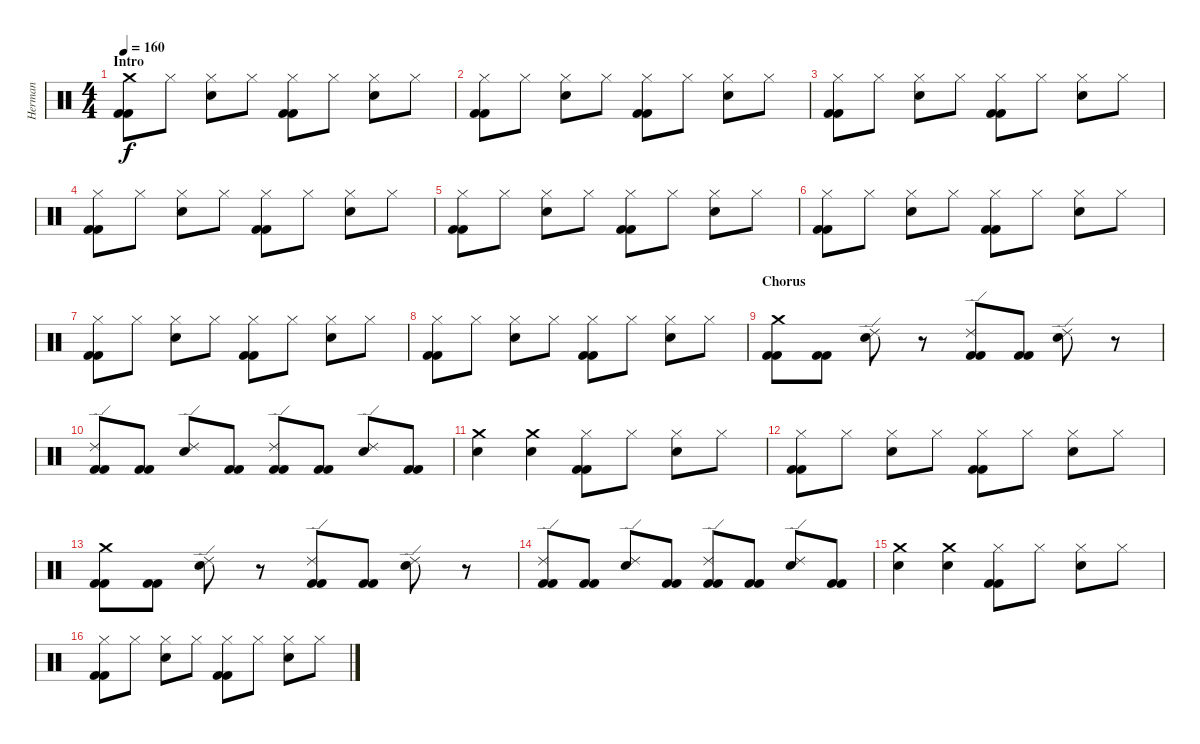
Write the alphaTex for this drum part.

\track ("Herman" "Herman") {instrument percussion}
\staff {score}
\articulation defaults
\ts (4 4)
\section ("" "Intro")
\tempo 160
\clef neutral
\ks c
("Kick (hit) 2" "Kick (hit) 2" "Crash medium (hit)").8{dy f} "Hi-Hat (closed)".8 ("Electric Snare (hit)" "Hi-Hat (closed)").8 "Hi-Hat (closed)".8 ("Hi-Hat (closed)" "Kick (hit) 2" "Kick (hit) 2").8 "Hi-Hat (closed)".8 ("Electric Snare (hit)" "Hi-Hat (closed)").8 "Hi-Hat (closed)".8 |
("Kick (hit) 2" "Kick (hit) 2" "Hi-Hat (closed)").8 "Hi-Hat (closed)".8 ("Hi-Hat (closed)" "Electric Snare (hit)").8 "Hi-Hat (closed)".8 ("Kick (hit) 2" "Kick (hit) 2" "Hi-Hat (closed)").8 "Hi-Hat (closed)".8 ("Hi-Hat (closed)" "Electric Snare (hit)").8 "Hi-Hat (closed)".8 |
("Kick (hit) 2" "Kick (hit) 2" "Hi-Hat (closed)").8 "Hi-Hat (closed)".8 ("Hi-Hat (closed)" "Electric Snare (hit)").8 "Hi-Hat (closed)".8 ("Kick (hit) 2" "Kick (hit) 2" "Hi-Hat (closed)").8 "Hi-Hat (closed)".8 ("Hi-Hat (closed)" "Electric Snare (hit)").8 "Hi-Hat (closed)".8 |
("Kick (hit) 2" "Kick (hit) 2" "Hi-Hat (closed)").8 "Hi-Hat (closed)".8 ("Hi-Hat (closed)" "Electric Snare (hit)").8 "Hi-Hat (closed)".8 ("Kick (hit) 2" "Kick (hit) 2" "Hi-Hat (closed)").8 "Hi-Hat (closed)".8 ("Hi-Hat (closed)" "Electric Snare (hit)").8 "Hi-Hat (closed)".8 |
("Kick (hit) 2" "Kick (hit) 2" "Hi-Hat (closed)").8 "Hi-Hat (closed)".8 ("Hi-Hat (closed)" "Electric Snare (hit)").8 "Hi-Hat (closed)".8 ("Kick (hit) 2" "Kick (hit) 2" "Hi-Hat (closed)").8 "Hi-Hat (closed)".8 ("Hi-Hat (closed)" "Electric Snare (hit)").8 "Hi-Hat (closed)".8 |
("Kick (hit) 2" "Kick (hit) 2" "Hi-Hat (closed)").8 "Hi-Hat (closed)".8 ("Hi-Hat (closed)" "Electric Snare (hit)").8 "Hi-Hat (closed)".8 ("Kick (hit) 2" "Kick (hit) 2" "Hi-Hat (closed)").8 "Hi-Hat (closed)".8 ("Hi-Hat (closed)" "Electric Snare (hit)").8 "Hi-Hat (closed)".8 |
("Kick (hit) 2" "Kick (hit) 2" "Hi-Hat (closed)").8 "Hi-Hat (closed)".8 ("Hi-Hat (closed)" "Electric Snare (hit)").8 "Hi-Hat (closed)".8 ("Kick (hit) 2" "Kick (hit) 2" "Hi-Hat (closed)").8 "Hi-Hat (closed)".8 ("Hi-Hat (closed)" "Electric Snare (hit)").8 "Hi-Hat (closed)".8 |
("Kick (hit) 2" "Kick (hit) 2" "Hi-Hat (closed)").8 "Hi-Hat (closed)".8 ("Hi-Hat (closed)" "Electric Snare (hit)").8 "Hi-Hat (closed)".8 ("Kick (hit) 2" "Kick (hit) 2" "Hi-Hat (closed)").8 "Hi-Hat (closed)".8 ("Hi-Hat (closed)" "Electric Snare (hit)").8 "Hi-Hat (closed)".8 |
\section ("" "Chorus")
("Crash medium (hit)" "Kick (hit) 2" "Kick (hit) 2").8 ("Kick (hit) 2" "Kick (hit) 2").8 ("Electric Snare (hit)" "Ride (edge) 2").8 r.8 ("Ride (edge) 2" "Kick (hit) 2" "Kick (hit) 2").8 ("Kick (hit) 2" "Kick (hit) 2").8 ("Electric Snare (hit)" "Ride (edge) 2").8 r.8 |
("Kick (hit) 2" "Kick (hit) 2" "Ride (edge) 2").8 ("Kick (hit) 2" "Kick (hit) 2").8 ("Electric Snare (hit)" "Ride (edge) 2").8 ("Kick (hit) 2" "Kick (hit) 2").8 ("Kick (hit) 2" "Kick (hit) 2" "Ride (edge) 2").8 ("Kick (hit) 2" "Kick (hit) 2").8 ("Electric Snare (hit)" "Ride (edge) 2").8 ("Kick (hit) 2" "Kick (hit) 2").8 |
("Crash medium (hit)" "Electric Snare (hit)").4 ("Crash medium (hit)" "Electric Snare (hit)").4 ("Hi-Hat (closed)" "Kick (hit) 2" "Kick (hit) 2").8 "Hi-Hat (closed)".8 ("Electric Snare (hit)" "Hi-Hat (closed)").8 "Hi-Hat (closed)".8 |
("Kick (hit) 2" "Kick (hit) 2" "Hi-Hat (closed)").8 "Hi-Hat (closed)".8 ("Hi-Hat (closed)" "Electric Snare (hit)").8 "Hi-Hat (closed)".8 ("Hi-Hat (closed)" "Kick (hit) 2" "Kick (hit) 2").8 "Hi-Hat (closed)".8 ("Electric Snare (hit)" "Hi-Hat (closed)").8 "Hi-Hat (closed)".8 |
("Crash medium (hit)" "Kick (hit) 2" "Kick (hit) 2").8 ("Kick (hit) 2" "Kick (hit) 2").8 ("Electric Snare (hit)" "Ride (edge) 2").8 r.8 ("Ride (edge) 2" "Kick (hit) 2" "Kick (hit) 2").8 ("Kick (hit) 2" "Kick (hit) 2").8 ("Electric Snare (hit)" "Ride (edge) 2").8 r.8 |
("Kick (hit) 2" "Kick (hit) 2" "Ride (edge) 2").8 ("Kick (hit) 2" "Kick (hit) 2").8 ("Electric Snare (hit)" "Ride (edge) 2").8 ("Kick (hit) 2" "Kick (hit) 2").8 ("Kick (hit) 2" "Kick (hit) 2" "Ride (edge) 2").8 ("Kick (hit) 2" "Kick (hit) 2").8 ("Electric Snare (hit)" "Ride (edge) 2").8 ("Kick (hit) 2" "Kick (hit) 2").8 |
("Crash medium (hit)" "Electric Snare (hit)").4 ("Crash medium (hit)" "Electric Snare (hit)").4 ("Hi-Hat (closed)" "Kick (hit) 2" "Kick (hit) 2").8 "Hi-Hat (closed)".8 ("Electric Snare (hit)" "Hi-Hat (closed)").8 "Hi-Hat (closed)".8 |
("Kick (hit) 2" "Kick (hit) 2" "Hi-Hat (closed)").8 "Hi-Hat (closed)".8 ("Hi-Hat (closed)" "Electric Snare (hit)").8 "Hi-Hat (closed)".8 ("Hi-Hat (closed)" "Kick (hit) 2" "Kick (hit) 2").8 "Hi-Hat (closed)".8 ("Electric Snare (hit)" "Hi-Hat (closed)").8 "Hi-Hat (closed)".8
